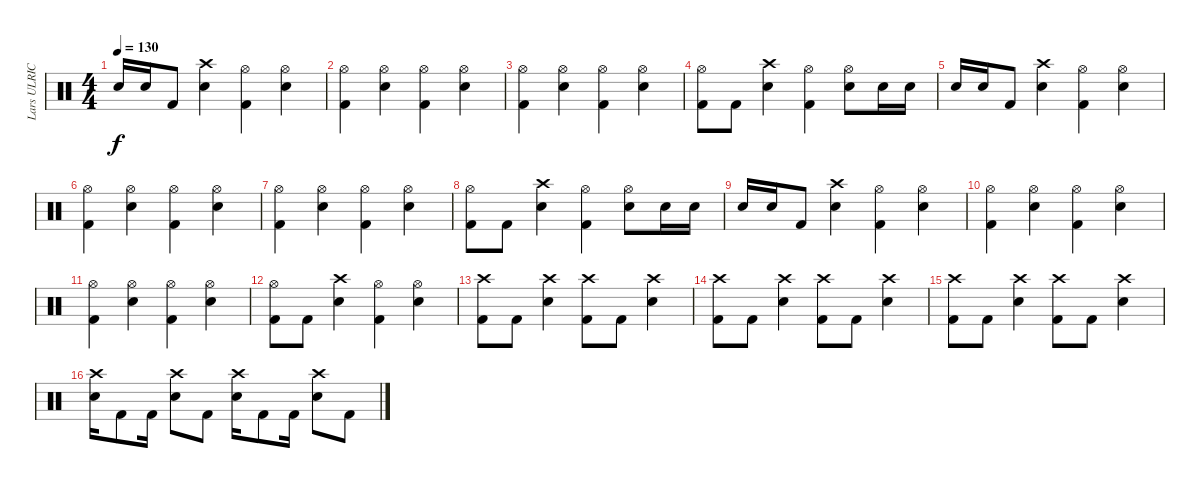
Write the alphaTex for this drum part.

\track ("Lars ULRICH" "Lars ULRIC") {instrument percussion}
\staff {score}
\articulation defaults
\ts (4 4)
\tempo 130
\clef neutral
\ks c "Snare (hit) 2".16{dy f} "Snare (hit) 2".16 "Kick (hit) 2".8
("Crash high (hit)" "Snare (hit) 2").4 ("Hi-Hat (open)" "Kick (hit) 2").4 ("Hi-Hat (open)" "Snare (hit) 2").4 |
("Hi-Hat (open)" "Kick (hit) 2").4 ("Hi-Hat (open)" "Snare (hit) 2").4 ("Hi-Hat (open)" "Kick (hit) 2").4 ("Hi-Hat (open)" "Snare (hit) 2").4 |
("Hi-Hat (open)" "Kick (hit) 2").4 ("Hi-Hat (open)" "Snare (hit) 2").4 ("Hi-Hat (open)" "Kick (hit) 2").4 ("Hi-Hat (open)" "Snare (hit) 2").4 |
("Hi-Hat (open)" "Kick (hit) 2").8 "Kick (hit) 2".8 ("Crash high (hit)" "Snare (hit) 2").4 ("Hi-Hat (open)" "Kick (hit) 2").4 ("Hi-Hat (open)" "Snare (hit) 2").8 "Snare (hit) 2".16 "Snare (hit) 2".16 |
"Snare (hit) 2".16 "Snare (hit) 2".16 "Kick (hit) 2".8 ("Crash high (hit)" "Snare (hit) 2").4 ("Hi-Hat (open)" "Kick (hit) 2").4 ("Hi-Hat (open)" "Snare (hit) 2").4 |
("Hi-Hat (open)" "Kick (hit) 2").4 ("Hi-Hat (open)" "Snare (hit) 2").4 ("Hi-Hat (open)" "Kick (hit) 2").4 ("Hi-Hat (open)" "Snare (hit) 2").4 |
("Hi-Hat (open)" "Kick (hit) 2").4 ("Hi-Hat (open)" "Snare (hit) 2").4 ("Hi-Hat (open)" "Kick (hit) 2").4 ("Hi-Hat (open)" "Snare (hit) 2").4 |
("Hi-Hat (open)" "Kick (hit) 2").8 "Kick (hit) 2".8 ("Crash high (hit)" "Snare (hit) 2").4 ("Hi-Hat (open)" "Kick (hit) 2").4 ("Hi-Hat (open)" "Snare (hit) 2").8 "Snare (hit) 2".16 "Snare (hit) 2".16 |
"Snare (hit) 2".16 "Snare (hit) 2".16 "Kick (hit) 2".8 ("Crash high (hit)" "Snare (hit) 2").4 ("Hi-Hat (open)" "Kick (hit) 2").4 ("Hi-Hat (open)" "Snare (hit) 2").4 |
("Hi-Hat (open)" "Kick (hit) 2").4 ("Hi-Hat (open)" "Snare (hit) 2").4 ("Hi-Hat (open)" "Kick (hit) 2").4 ("Hi-Hat (open)" "Snare (hit) 2").4 |
("Hi-Hat (open)" "Kick (hit) 2").4 ("Hi-Hat (open)" "Snare (hit) 2").4 ("Hi-Hat (open)" "Kick (hit) 2").4 ("Hi-Hat (open)" "Snare (hit) 2").4 |
("Hi-Hat (open)" "Kick (hit) 2").8 "Kick (hit) 2".8 ("Crash high (hit)" "Snare (hit) 2").4 ("Hi-Hat (open)" "Kick (hit) 2").4 ("Hi-Hat (open)" "Snare (hit) 2").4 |
("Crash high (hit)" "Kick (hit) 2").8 "Kick (hit) 2".8 ("Crash high (hit)" "Snare (hit) 2").4 ("Crash high (hit)" "Kick (hit) 2").8 "Kick (hit) 2".8 ("Crash high (hit)" "Snare (hit) 2").4 |
("Crash high (hit)" "Kick (hit) 2").8 "Kick (hit) 2".8 ("Crash high (hit)" "Snare (hit) 2").4 ("Crash high (hit)" "Kick (hit) 2").8 "Kick (hit) 2".8 ("Crash high (hit)" "Snare (hit) 2").4 |
("Crash high (hit)" "Kick (hit) 2").8 "Kick (hit) 2".8 ("Crash high (hit)" "Snare (hit) 2").4 ("Crash high (hit)" "Kick (hit) 2").8 "Kick (hit) 2".8 ("Crash high (hit)" "Snare (hit) 2").4 |
("Crash high (hit)" "Snare (hit) 2").16 "Kick (hit) 2".8 "Kick (hit) 2".16 ("Crash high (hit)" "Snare (hit) 2").8 "Kick (hit) 2".8 ("Crash high (hit)" "Snare (hit) 2").16 "Kick (hit) 2".8 "Kick (hit) 2".16 ("Crash high (hit)" "Snare (hit) 2").8 "Kick (hit) 2".8
